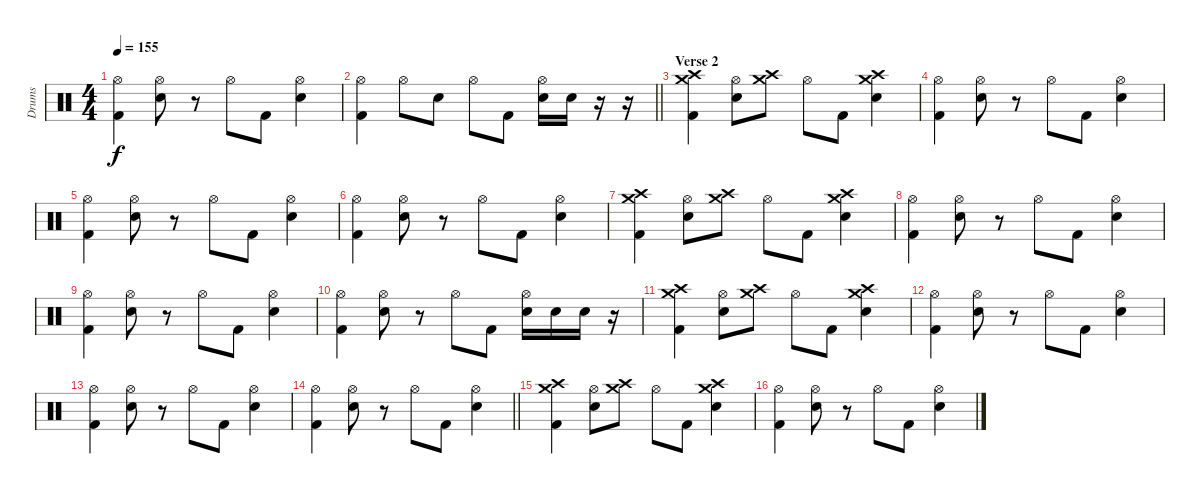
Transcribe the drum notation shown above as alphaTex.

\track ("Drums" "Drums") {instrument percussion}
\staff {score}
\articulation defaults
\ts (4 4)
\tempo 155
\clef neutral
\ks c
("Hi-Hat (open)" "Kick (hit) 2").4{dy f} ("Hi-Hat (open)" "Electric Snare (hit)").8 r.8 "Hi-Hat (open)".8 "Kick (hit) 2".8 ("Hi-Hat (open)" "Electric Snare (hit)").4 |
\barLineRight lightlight
("Hi-Hat (open)" "Kick (hit) 2").4 "Hi-Hat (open)".8 "Electric Snare (hit)".8 "Hi-Hat (open)".8 "Kick (hit) 2".8 ("Hi-Hat (open)" "Electric Snare (hit)").16 "Electric Snare (hit)".16 r.16 r.16 |
\section ("" "Verse 2")
("Crash high (hit)" "Crash medium (hit)" "Kick (hit) 2").4 ("Hi-Hat (open)" "Electric Snare (hit)").8 ("Crash high (hit)" "Crash medium (hit)").8 "Hi-Hat (open)".8 "Kick (hit) 2".8 ("Crash high (hit)" "Crash medium (hit)" "Electric Snare (hit)").4 |
("Hi-Hat (open)" "Kick (hit) 2").4 ("Hi-Hat (open)" "Electric Snare (hit)").8 r.8 "Hi-Hat (open)".8 "Kick (hit) 2".8 ("Hi-Hat (open)" "Electric Snare (hit)").4 |
("Hi-Hat (open)" "Kick (hit) 2").4 ("Hi-Hat (open)" "Electric Snare (hit)").8 r.8 "Hi-Hat (open)".8 "Kick (hit) 2".8 ("Hi-Hat (open)" "Electric Snare (hit)").4 |
("Hi-Hat (open)" "Kick (hit) 2").4 ("Hi-Hat (open)" "Electric Snare (hit)").8 r.8 "Hi-Hat (open)".8 "Kick (hit) 2".8 ("Hi-Hat (open)" "Electric Snare (hit)").4 |
("Crash high (hit)" "Crash medium (hit)" "Kick (hit) 2").4 ("Hi-Hat (open)" "Electric Snare (hit)").8 ("Crash high (hit)" "Crash medium (hit)").8 "Hi-Hat (open)".8 "Kick (hit) 2".8 ("Crash high (hit)" "Crash medium (hit)" "Electric Snare (hit)").4 |
("Hi-Hat (open)" "Kick (hit) 2").4 ("Hi-Hat (open)" "Electric Snare (hit)").8 r.8 "Hi-Hat (open)".8 "Kick (hit) 2".8 ("Hi-Hat (open)" "Electric Snare (hit)").4 |
("Hi-Hat (open)" "Kick (hit) 2").4 ("Hi-Hat (open)" "Electric Snare (hit)").8 r.8 "Hi-Hat (open)".8 "Kick (hit) 2".8 ("Hi-Hat (open)" "Electric Snare (hit)").4 |
("Hi-Hat (open)" "Kick (hit) 2").4 ("Hi-Hat (open)" "Electric Snare (hit)").8 r.8 "Hi-Hat (open)".8 "Kick (hit) 2".8 ("Hi-Hat (open)" "Electric Snare (hit)").16 "Electric Snare (hit)".16 "Electric Snare (hit)".16 r.16 |
("Crash high (hit)" "Crash medium (hit)" "Kick (hit) 2").4 ("Hi-Hat (open)" "Electric Snare (hit)").8 ("Crash high (hit)" "Crash medium (hit)").8 "Hi-Hat (open)".8 "Kick (hit) 2".8 ("Crash high (hit)" "Crash medium (hit)" "Electric Snare (hit)").4 |
("Hi-Hat (open)" "Kick (hit) 2").4 ("Hi-Hat (open)" "Electric Snare (hit)").8 r.8 "Hi-Hat (open)".8 "Kick (hit) 2".8 ("Hi-Hat (open)" "Electric Snare (hit)").4 |
("Hi-Hat (open)" "Kick (hit) 2").4 ("Hi-Hat (open)" "Electric Snare (hit)").8 r.8 "Hi-Hat (open)".8 "Kick (hit) 2".8 ("Hi-Hat (open)" "Electric Snare (hit)").4 |
\barLineRight lightlight
("Hi-Hat (open)" "Kick (hit) 2").4 ("Hi-Hat (open)" "Electric Snare (hit)").8 r.8 "Hi-Hat (open)".8 "Kick (hit) 2".8 ("Hi-Hat (open)" "Electric Snare (hit)").4 |
("Crash high (hit)" "Crash medium (hit)" "Kick (hit) 2").4 ("Hi-Hat (open)" "Electric Snare (hit)").8 ("Crash high (hit)" "Crash medium (hit)").8 "Hi-Hat (open)".8 "Kick (hit) 2".8 ("Crash high (hit)" "Crash medium (hit)" "Electric Snare (hit)").4 |
("Hi-Hat (open)" "Kick (hit) 2").4 ("Hi-Hat (open)" "Electric Snare (hit)").8 r.8 "Hi-Hat (open)".8 "Kick (hit) 2".8 ("Hi-Hat (open)" "Electric Snare (hit)").4
